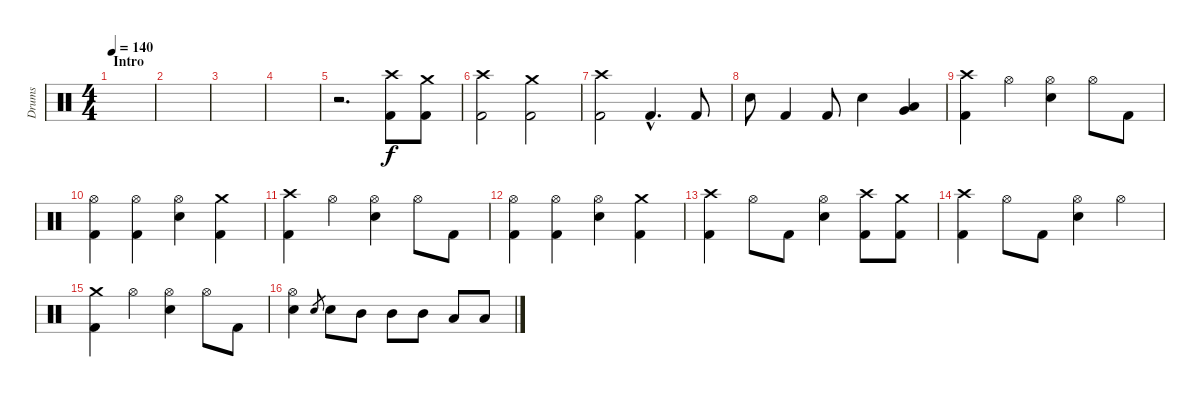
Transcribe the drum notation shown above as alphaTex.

\track ("Drums" "Drums") {instrument percussion}
\staff {score}
\articulation defaults
\ts (4 4)
\section ("" "Intro")
\tempo 140
\clef neutral
\ks c
|
|
|
|
r.2{d} ("Crash high (hit)" "Kick (hit) 2").8 ("Crash medium (hit)" "Kick (hit) 2").8 |
("Crash high (hit)" "Kick (hit) 2").2 ("Crash medium (hit)" "Kick (hit) 2").2 |
("Crash high (hit)" "Kick (hit) 2").2 "Kick (hit) 2"{hac}.4{d} "Kick (hit) 2".8 |
"Electric Snare (hit)".8 "Kick (hit) 2".4 "Kick (hit) 2".8 "Electric Snare (hit)".4 ("Low Tom (hit)" "Very Low Tom (hit)").4 |
("Crash high (hit)" "Kick (hit) 2").4 "Hi-Hat (open)".4 ("Hi-Hat (open)" "Electric Snare (hit)").4 "Hi-Hat (open)".8 "Kick (hit) 2".8 |
("Hi-Hat (open)" "Kick (hit) 2").4 ("Hi-Hat (open)" "Kick (hit) 2").4 ("Hi-Hat (open)" "Electric Snare (hit)").4 ("Crash medium (hit)" "Kick (hit) 2").4 |
("Crash high (hit)" "Kick (hit) 2").4 "Hi-Hat (open)".4 ("Hi-Hat (open)" "Electric Snare (hit)").4 "Hi-Hat (open)".8 "Kick (hit) 2".8 |
("Hi-Hat (open)" "Kick (hit) 2").4 ("Hi-Hat (open)" "Kick (hit) 2").4 ("Hi-Hat (open)" "Electric Snare (hit)").4 ("Crash medium (hit)" "Kick (hit) 2").4 |
("Crash high (hit)" "Kick (hit) 2").4 "Hi-Hat (open)".8 "Kick (hit) 2".8 ("Hi-Hat (open)" "Electric Snare (hit)").4 ("Crash high (hit)" "Kick (hit) 2").8 ("Crash medium (hit)" "Kick (hit) 2").8 |
("Crash high (hit)" "Kick (hit) 2").4 "Hi-Hat (open)".8 "Kick (hit) 2".8 ("Hi-Hat (open)" "Electric Snare (hit)").4 "Hi-Hat (open)".4 |
("Crash medium (hit)" "Kick (hit) 2").4 "Hi-Hat (open)".4 ("Hi-Hat (open)" "Electric Snare (hit)").4 "Hi-Hat (open)".8 "Kick (hit) 2".8 |
("Hi-Hat (open)" "Electric Snare (hit)").4 "Electric Snare (hit)".8{gr} "Electric Snare (hit)".8 "Mid Tom (hit)".8 "Mid Tom (hit)".8 "Mid Tom (hit)".8 "Low Tom (hit)".8 "Low Tom (hit)".8
